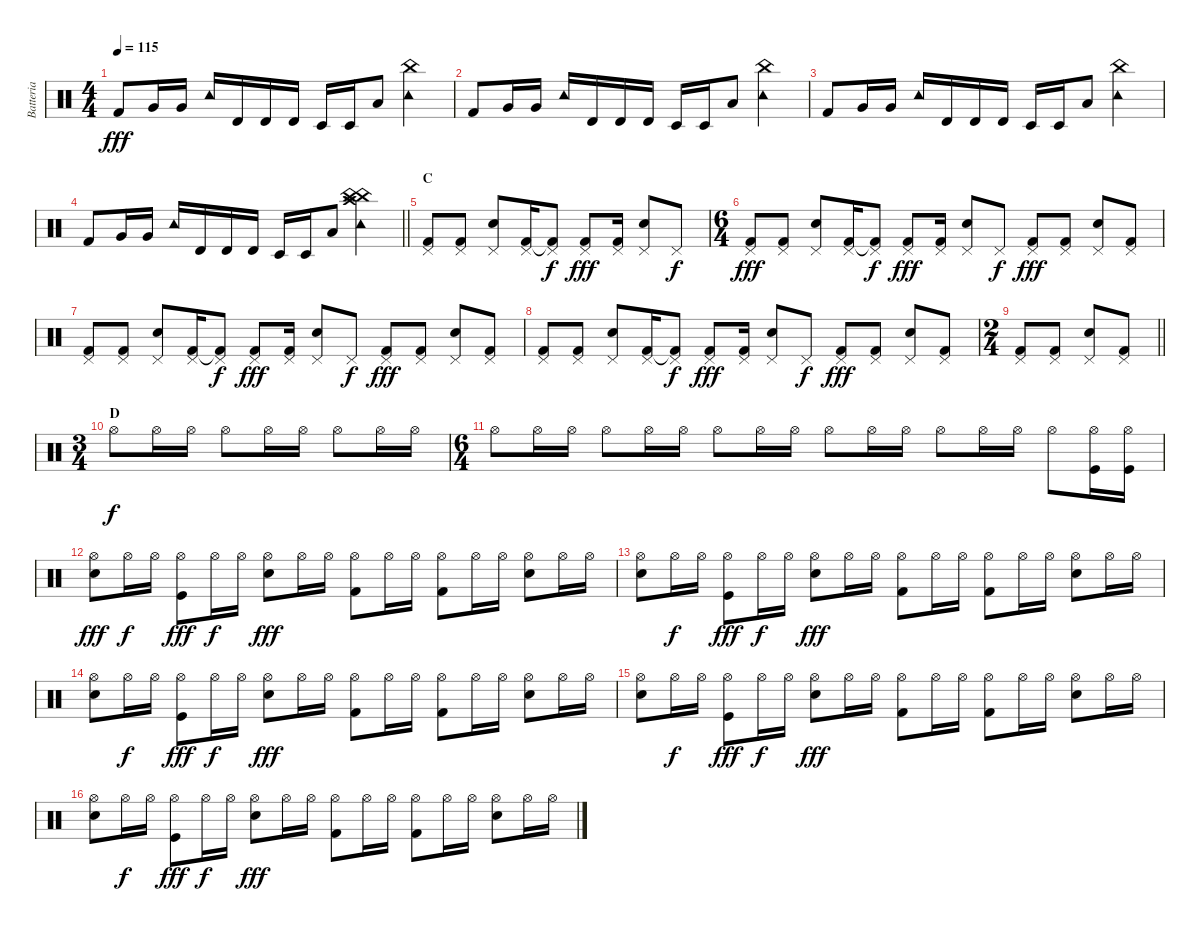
\track ("Batteria" "Batteria") {instrument percussion}
\staff {score}
\articulation defaults
\ts (4 4)
\tempo 115
\clef neutral
\ks c "Kick (hit) 2".8{dy fff} "Very Low Tom (hit)".16 "Very Low Tom (hit)".16 "Tambourine (hit)".16 "Timbale high (hit)".16 "Timbale high (hit)".16 "Timbale high (hit)".16 "Timbale low (hit)".16 "Timbale low (hit)".16 "Low Floor Tom (hit)".8
("China (hit)" "Tambourine (hit)").4 |
"Kick (hit) 2".8 "Very Low Tom (hit)".16 "Very Low Tom (hit)".16 "Tambourine (hit)".16 "Timbale high (hit)".16 "Timbale high (hit)".16 "Timbale high (hit)".16 "Timbale low (hit)".16 "Timbale low (hit)".16 "Low Floor Tom (hit)".8 ("China (hit)" "Tambourine (hit)").4 |
"Kick (hit) 2".8 "Very Low Tom (hit)".16 "Very Low Tom (hit)".16 "Tambourine (hit)".16 "Timbale high (hit)".16 "Timbale high (hit)".16 "Timbale high (hit)".16 "Timbale low (hit)".16 "Timbale low (hit)".16 "Low Floor Tom (hit)".8 ("China (hit)" "Tambourine (hit)").4 |
\barLineRight lightlight "Kick (hit) 2".8 "Very Low Tom (hit)".16 "Very Low Tom (hit)".16 "Tambourine (hit)".16 "Timbale high (hit)".16 "Timbale high (hit)".16 "Timbale high (hit)".16 "Timbale low (hit)".16 "Timbale low (hit)".16 "Low Floor Tom (hit)".8
("China (hit)" "Tambourine (hit)" "China (hit)" "Crash high (hit)").4 |
\section ("" "C")
("Kick (hit) 2" "Pedal Hi-Hat (hit)").8 ("Kick (hit) 2" "Pedal Hi-Hat (hit)").8 ("Snare (hit) 2" "Pedal Hi-Hat (hit)").8 ("Kick (hit) 2" "Pedal Hi-Hat (hit)").16 ("Kick (hit) 2"{t} "Pedal Hi-Hat (hit)").8{dy f} ("Kick (hit) 2" "Pedal Hi-Hat (hit)").8{dy fff} ("Kick (hit) 2" "Pedal Hi-Hat (hit)").16 ("Snare (hit) 2" "Pedal Hi-Hat (hit)").8 "Pedal Hi-Hat (hit)".8{dy f} |
\ts (6 4)
("Kick (hit) 2" "Pedal Hi-Hat (hit)").8{dy fff} ("Kick (hit) 2" "Pedal Hi-Hat (hit)").8 ("Snare (hit) 2" "Pedal Hi-Hat (hit)").8 ("Kick (hit) 2" "Pedal Hi-Hat (hit)").16 ("Kick (hit) 2"{t} "Pedal Hi-Hat (hit)").8{dy f} ("Kick (hit) 2" "Pedal Hi-Hat (hit)").8{dy fff} ("Kick (hit) 2" "Pedal Hi-Hat (hit)").16 ("Snare (hit) 2" "Pedal Hi-Hat (hit)").8 "Pedal Hi-Hat (hit)".8{dy f} ("Kick (hit) 2" "Pedal Hi-Hat (hit)").8{dy fff} ("Kick (hit) 2" "Pedal Hi-Hat (hit)").8 ("Snare (hit) 2" "Pedal Hi-Hat (hit)").8 ("Kick (hit) 2" "Pedal Hi-Hat (hit)").8 |
("Kick (hit) 2" "Pedal Hi-Hat (hit)").8 ("Kick (hit) 2" "Pedal Hi-Hat (hit)").8 ("Snare (hit) 2" "Pedal Hi-Hat (hit)").8 ("Kick (hit) 2" "Pedal Hi-Hat (hit)").16 ("Kick (hit) 2"{t} "Pedal Hi-Hat (hit)").8{dy f} ("Kick (hit) 2" "Pedal Hi-Hat (hit)").8{dy fff} ("Kick (hit) 2" "Pedal Hi-Hat (hit)").16 ("Snare (hit) 2" "Pedal Hi-Hat (hit)").8 "Pedal Hi-Hat (hit)".8{dy f} ("Kick (hit) 2" "Pedal Hi-Hat (hit)").8{dy fff} ("Kick (hit) 2" "Pedal Hi-Hat (hit)").8 ("Snare (hit) 2" "Pedal Hi-Hat (hit)").8 ("Kick (hit) 2" "Pedal Hi-Hat (hit)").8 |
("Kick (hit) 2" "Pedal Hi-Hat (hit)").8 ("Kick (hit) 2" "Pedal Hi-Hat (hit)").8 ("Snare (hit) 2" "Pedal Hi-Hat (hit)").8 ("Kick (hit) 2" "Pedal Hi-Hat (hit)").16 ("Kick (hit) 2"{t} "Pedal Hi-Hat (hit)").8{dy f} ("Kick (hit) 2" "Pedal Hi-Hat (hit)").8{dy fff} ("Kick (hit) 2" "Pedal Hi-Hat (hit)").16 ("Snare (hit) 2" "Pedal Hi-Hat (hit)").8 "Pedal Hi-Hat (hit)".8{dy f} ("Kick (hit) 2" "Pedal Hi-Hat (hit)").8{dy fff} ("Kick (hit) 2" "Pedal Hi-Hat (hit)").8 ("Snare (hit) 2" "Pedal Hi-Hat (hit)").8 ("Kick (hit) 2" "Pedal Hi-Hat (hit)").8 |
\ts (2 4)
\barLineRight lightlight
("Kick (hit) 2" "Pedal Hi-Hat (hit)").8 ("Kick (hit) 2" "Pedal Hi-Hat (hit)").8 ("Snare (hit) 2" "Pedal Hi-Hat (hit)").8 ("Kick (hit) 2" "Pedal Hi-Hat (hit)").8 |
\ts (3 4)
\section ("" "D")
"Hi-Hat (open)".8{dy f} "Hi-Hat (open)".16 "Hi-Hat (open)".16 "Hi-Hat (open)".8 "Hi-Hat (open)".16 "Hi-Hat (open)".16 "Hi-Hat (open)".8 "Hi-Hat (open)".16 "Hi-Hat (open)".16 |
\ts (6 4)
"Hi-Hat (open)".8 "Hi-Hat (open)".16 "Hi-Hat (open)".16 "Hi-Hat (open)".8 "Hi-Hat (open)".16 "Hi-Hat (open)".16 "Hi-Hat (open)".8 "Hi-Hat (open)".16 "Hi-Hat (open)".16 "Hi-Hat (open)".8 "Hi-Hat (open)".16 "Hi-Hat (open)".16 "Hi-Hat (open)".8 "Hi-Hat (open)".16 "Hi-Hat (open)".16 "Hi-Hat (open)".8 ("Hi-Hat (open)" "Kick (hit)").16 ("Hi-Hat (open)" "Kick (hit)").16 |
("Snare (hit) 2" "Hi-Hat (open)").8{dy fff} "Hi-Hat (open)".16{dy f} "Hi-Hat (open)".16 ("Kick (hit)" "Hi-Hat (open)").8{dy fff} "Hi-Hat (open)".16{dy f} "Hi-Hat (open)".16 ("Snare (hit) 2" "Hi-Hat (open)").8{dy fff} "Hi-Hat (open)".16 "Hi-Hat (open)".16 ("Kick (hit) 2" "Hi-Hat (open)").8 "Hi-Hat (open)".16 "Hi-Hat (open)".16 ("Kick (hit) 2" "Hi-Hat (open)").8 "Hi-Hat (open)".16 "Hi-Hat (open)".16 ("Snare (hit) 2" "Hi-Hat (open)").8 "Hi-Hat (open)".16 "Hi-Hat (open)".16 |
("Snare (hit) 2" "Hi-Hat (open)").8 "Hi-Hat (open)".16{dy f} "Hi-Hat (open)".16 ("Kick (hit)" "Hi-Hat (open)").8{dy fff} "Hi-Hat (open)".16{dy f} "Hi-Hat (open)".16 ("Snare (hit) 2" "Hi-Hat (open)").8{dy fff} "Hi-Hat (open)".16 "Hi-Hat (open)".16 ("Kick (hit) 2" "Hi-Hat (open)").8 "Hi-Hat (open)".16 "Hi-Hat (open)".16 ("Kick (hit) 2" "Hi-Hat (open)").8 "Hi-Hat (open)".16 "Hi-Hat (open)".16 ("Snare (hit) 2" "Hi-Hat (open)").8 "Hi-Hat (open)".16 "Hi-Hat (open)".16 |
("Snare (hit) 2" "Hi-Hat (open)").8 "Hi-Hat (open)".16{dy f} "Hi-Hat (open)".16 ("Kick (hit)" "Hi-Hat (open)").8{dy fff} "Hi-Hat (open)".16{dy f} "Hi-Hat (open)".16 ("Snare (hit) 2" "Hi-Hat (open)").8{dy fff} "Hi-Hat (open)".16 "Hi-Hat (open)".16 ("Kick (hit) 2" "Hi-Hat (open)").8 "Hi-Hat (open)".16 "Hi-Hat (open)".16 ("Kick (hit) 2" "Hi-Hat (open)").8 "Hi-Hat (open)".16 "Hi-Hat (open)".16 ("Snare (hit) 2" "Hi-Hat (open)").8 "Hi-Hat (open)".16 "Hi-Hat (open)".16 |
("Snare (hit) 2" "Hi-Hat (open)").8 "Hi-Hat (open)".16{dy f} "Hi-Hat (open)".16 ("Kick (hit)" "Hi-Hat (open)").8{dy fff} "Hi-Hat (open)".16{dy f} "Hi-Hat (open)".16 ("Snare (hit) 2" "Hi-Hat (open)").8{dy fff} "Hi-Hat (open)".16 "Hi-Hat (open)".16 ("Kick (hit) 2" "Hi-Hat (open)").8 "Hi-Hat (open)".16 "Hi-Hat (open)".16 ("Kick (hit) 2" "Hi-Hat (open)").8 "Hi-Hat (open)".16 "Hi-Hat (open)".16 ("Snare (hit) 2" "Hi-Hat (open)").8 "Hi-Hat (open)".16 "Hi-Hat (open)".16 |
("Snare (hit) 2" "Hi-Hat (open)").8 "Hi-Hat (open)".16{dy f} "Hi-Hat (open)".16 ("Kick (hit)" "Hi-Hat (open)").8{dy fff} "Hi-Hat (open)".16{dy f} "Hi-Hat (open)".16 ("Snare (hit) 2" "Hi-Hat (open)").8{dy fff} "Hi-Hat (open)".16 "Hi-Hat (open)".16 ("Kick (hit) 2" "Hi-Hat (open)").8 "Hi-Hat (open)".16 "Hi-Hat (open)".16 ("Kick (hit) 2" "Hi-Hat (open)").8 "Hi-Hat (open)".16 "Hi-Hat (open)".16 ("Snare (hit) 2" "Hi-Hat (open)").8 "Hi-Hat (open)".16 "Hi-Hat (open)".16
